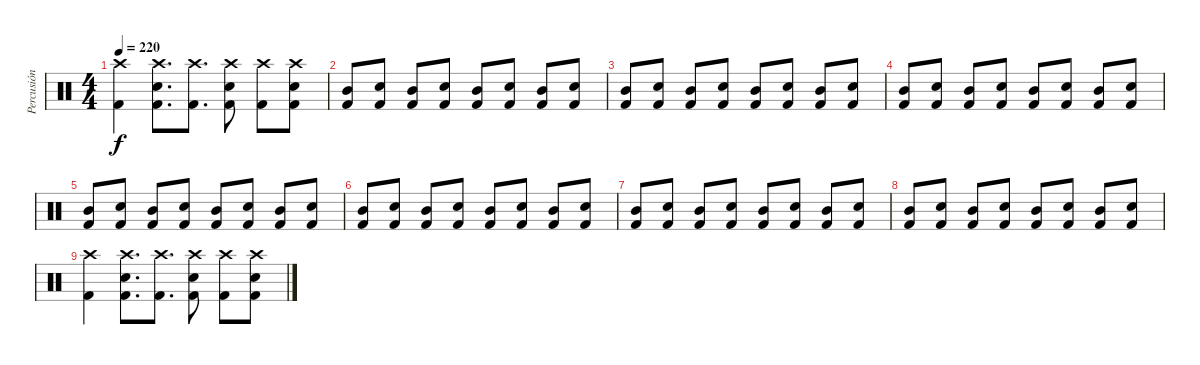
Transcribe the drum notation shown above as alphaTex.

\track ("Percusión" "Percusión") {instrument percussion}
\staff {score}
\articulation defaults
\ts (4 4)
\tempo 220
\clef neutral
\ks c
("Crash high (hit)" "Kick (hit) 2").4{dy f} ("Crash high (hit)" "Electric Snare (hit)" "Kick (hit) 2").8{d} ("Crash high (hit)" "Kick (hit) 2").8{d} ("Crash high (hit)" "Electric Snare (hit)" "Kick (hit) 2").8 ("Crash high (hit)" "Kick (hit) 2").8 ("Crash high (hit)" "Electric Snare (hit)" "Kick (hit) 2").8 |
("Mid Tom (hit)" "Kick (hit) 2").8 ("Electric Snare (hit)" "Kick (hit) 2").8 ("Mid Tom (hit)" "Kick (hit) 2").8 ("Electric Snare (hit)" "Kick (hit) 2").8 ("Mid Tom (hit)" "Kick (hit) 2").8 ("Electric Snare (hit)" "Kick (hit) 2").8 ("Mid Tom (hit)" "Kick (hit) 2").8 ("Electric Snare (hit)" "Kick (hit) 2").8 |
("Mid Tom (hit)" "Kick (hit) 2").8 ("Electric Snare (hit)" "Kick (hit) 2").8 ("Mid Tom (hit)" "Kick (hit) 2").8 ("Electric Snare (hit)" "Kick (hit) 2").8 ("Mid Tom (hit)" "Kick (hit) 2").8 ("Electric Snare (hit)" "Kick (hit) 2").8 ("Mid Tom (hit)" "Kick (hit) 2").8 ("Electric Snare (hit)" "Kick (hit) 2").8 |
("Mid Tom (hit)" "Kick (hit) 2").8 ("Electric Snare (hit)" "Kick (hit) 2").8 ("Mid Tom (hit)" "Kick (hit) 2").8 ("Electric Snare (hit)" "Kick (hit) 2").8 ("Mid Tom (hit)" "Kick (hit) 2").8 ("Electric Snare (hit)" "Kick (hit) 2").8 ("Mid Tom (hit)" "Kick (hit) 2").8 ("Electric Snare (hit)" "Kick (hit) 2").8 |
("Mid Tom (hit)" "Kick (hit) 2").8 ("Electric Snare (hit)" "Kick (hit) 2").8 ("Mid Tom (hit)" "Kick (hit) 2").8 ("Electric Snare (hit)" "Kick (hit) 2").8 ("Mid Tom (hit)" "Kick (hit) 2").8 ("Electric Snare (hit)" "Kick (hit) 2").8 ("Mid Tom (hit)" "Kick (hit) 2").8 ("Electric Snare (hit)" "Kick (hit) 2").8 |
("Mid Tom (hit)" "Kick (hit) 2").8 ("Electric Snare (hit)" "Kick (hit) 2").8 ("Mid Tom (hit)" "Kick (hit) 2").8 ("Electric Snare (hit)" "Kick (hit) 2").8 ("Mid Tom (hit)" "Kick (hit) 2").8 ("Electric Snare (hit)" "Kick (hit) 2").8 ("Mid Tom (hit)" "Kick (hit) 2").8 ("Electric Snare (hit)" "Kick (hit) 2").8 |
("Mid Tom (hit)" "Kick (hit) 2").8 ("Electric Snare (hit)" "Kick (hit) 2").8 ("Mid Tom (hit)" "Kick (hit) 2").8 ("Electric Snare (hit)" "Kick (hit) 2").8 ("Mid Tom (hit)" "Kick (hit) 2").8 ("Electric Snare (hit)" "Kick (hit) 2").8 ("Mid Tom (hit)" "Kick (hit) 2").8 ("Electric Snare (hit)" "Kick (hit) 2").8 |
("Mid Tom (hit)" "Kick (hit) 2").8 ("Electric Snare (hit)" "Kick (hit) 2").8 ("Mid Tom (hit)" "Kick (hit) 2").8 ("Electric Snare (hit)" "Kick (hit) 2").8 ("Mid Tom (hit)" "Kick (hit) 2").8 ("Electric Snare (hit)" "Kick (hit) 2").8 ("Mid Tom (hit)" "Kick (hit) 2").8 ("Electric Snare (hit)" "Kick (hit) 2").8 |
("Crash high (hit)" "Kick (hit) 2").4 ("Crash high (hit)" "Electric Snare (hit)" "Kick (hit) 2").8{d} ("Crash high (hit)" "Kick (hit) 2").8{d} ("Crash high (hit)" "Electric Snare (hit)" "Kick (hit) 2").8 ("Crash high (hit)" "Kick (hit) 2").8 ("Crash high (hit)" "Electric Snare (hit)" "Kick (hit) 2").8
